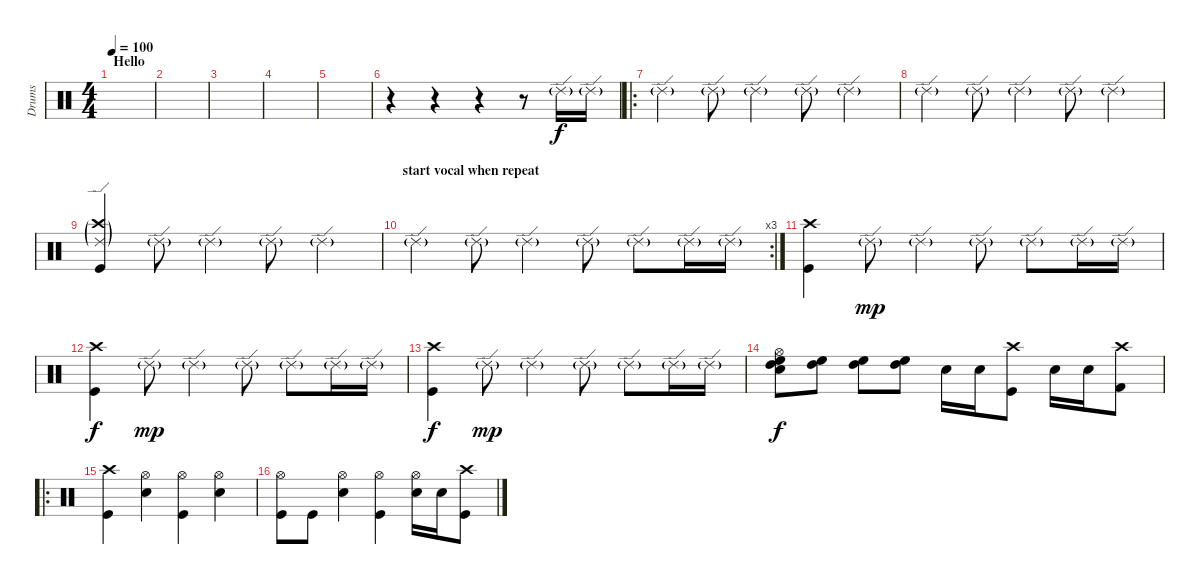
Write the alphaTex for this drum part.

\track ("Drums" "Drums") {instrument percussion}
\staff {score}
\articulation defaults
\ts (4 4)
\section ("" "Hello")
\tempo 100
\clef neutral
\ks c
|
|
|
|
|
r.4 r.4 r.4 r.8 "Ride (edge) 2"{g}.16 "Ride (edge) 2"{g}.16 |
\ro "Ride (edge) 2"{g}.4 "Ride (edge) 2"{g}.8 "Ride (edge) 2"{g}.4 "Ride (edge) 2"{g}.8 "Ride (edge) 2"{g}.4
|
"Ride (edge) 2"{g}.4 "Ride (edge) 2"{g}.8 "Ride (edge) 2"{g}.4 "Ride (edge) 2"{g}.8 "Ride (edge) 2"{g}.4 |
("Crash high (hit)"{g} "Ride (edge) 2"{g} "Kick (hit)").4 "Ride (edge) 2"{g}.8 "Ride (edge) 2"{g}.4 "Ride (edge) 2"{g}.8 "Ride (edge) 2"{g}.4 |
\rc 3
\section ("" "start vocal when repeat")
"Ride (edge) 2"{g}.4 "Ride (edge) 2"{g}.8 "Ride (edge) 2"{g}.4 "Ride (edge) 2"{g}.8 "Ride (edge) 2"{g}.8 "Ride (edge) 2"{g}.16 "Ride (edge) 2"{g}.16 |
("Crash high (hit)" "Kick (hit)").4{dy f} "Ride (edge) 2"{g}.8{dy mp} "Ride (edge) 2"{g}.4 "Ride (edge) 2"{g}.8 "Ride (edge) 2"{g}.8 "Ride (edge) 2"{g}.16 "Ride (edge) 2"{g}.16 |
("Crash high (hit)" "Kick (hit)").4{dy f} "Ride (edge) 2"{g}.8{dy mp} "Ride (edge) 2"{g}.4 "Ride (edge) 2"{g}.8 "Ride (edge) 2"{g}.8 "Ride (edge) 2"{g}.16 "Ride (edge) 2"{g}.16 |
("Crash high (hit)" "Kick (hit)").4{dy f} "Ride (edge) 2"{g}.8{dy mp} "Ride (edge) 2"{g}.4 "Ride (edge) 2"{g}.8 "Ride (edge) 2"{g}.8 "Ride (edge) 2"{g}.16 "Ride (edge) 2"{g}.16 |
("Hi-Hat (open)" "High Tom (hit)" "High Floor Tom (hit)" "Electric Snare (hit)").8{dy f} ("High Tom (hit)" "High Floor Tom (hit)").8 ("High Tom (hit)" "High Floor Tom (hit)").8 ("High Tom (hit)" "High Floor Tom (hit)").8 "Electric Snare (hit)".16 "Electric Snare (hit)".16 ("Crash high (hit)" "Kick (hit)").8 "Electric Snare (hit)".16 "Electric Snare (hit)".16 ("Crash high (hit)" "Kick (hit) 2").8 |
\ro
("Crash high (hit)" "Kick (hit)").4 ("Hi-Hat (open)" "Electric Snare (hit)").4 ("Hi-Hat (open)" "Kick (hit)").4 ("Hi-Hat (open)" "Electric Snare (hit)").4 |
("Hi-Hat (open)" "Kick (hit)").8 "Kick (hit)".8 ("Hi-Hat (open)" "Electric Snare (hit)").4 ("Hi-Hat (open)" "Kick (hit)").4 ("Hi-Hat (open)" "Electric Snare (hit)").16 "Electric Snare (hit)".16 ("Crash high (hit)" "Kick (hit)").8
